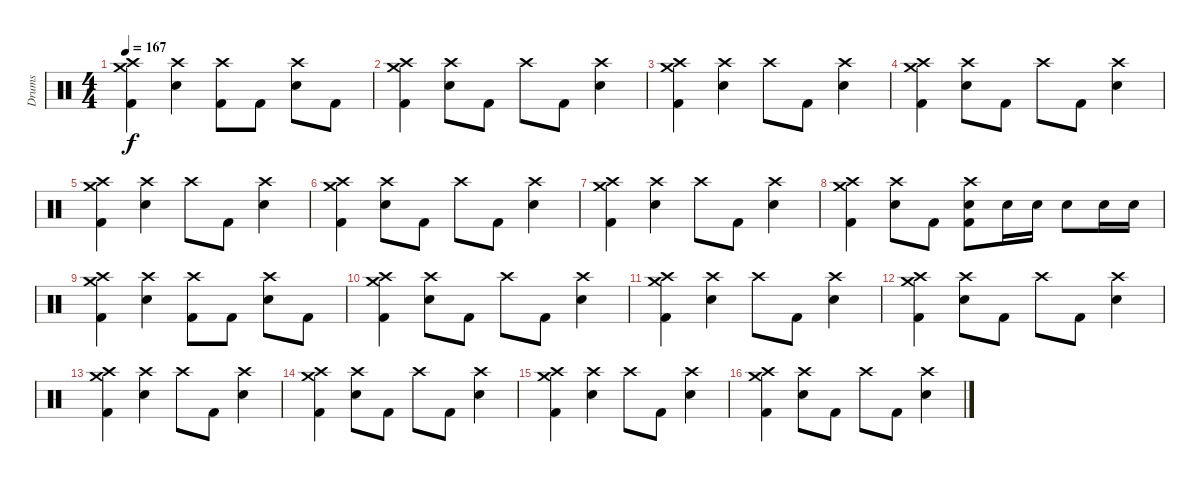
\track ("Drums" "Drums") {instrument percussion}
\staff {score}
\articulation defaults
\ts (4 4)
\tempo 167
\clef neutral
\ks c
("Crash medium (hit)" "Crash high (hit)" "Kick (hit) 2").4{dy f} ("Crash high (hit)" "Snare (hit) 2").4 ("Crash high (hit)" "Kick (hit) 2").8 "Kick (hit) 2".8 ("Crash high (hit)" "Snare (hit) 2").8 "Kick (hit) 2".8 |
("Crash medium (hit)" "Crash high (hit)" "Kick (hit) 2").4 ("Crash high (hit)" "Snare (hit) 2").8 "Kick (hit) 2".8 "Crash high (hit)".8 "Kick (hit) 2".8 ("Crash high (hit)" "Snare (hit) 2").4 |
("Crash medium (hit)" "Crash high (hit)" "Kick (hit) 2").4 ("Crash high (hit)" "Snare (hit) 2").4 "Crash high (hit)".8 "Kick (hit) 2".8 ("Crash high (hit)" "Snare (hit) 2").4 |
("Crash medium (hit)" "Crash high (hit)" "Kick (hit) 2").4 ("Crash high (hit)" "Snare (hit) 2").8 "Kick (hit) 2".8 "Crash high (hit)".8 "Kick (hit) 2".8 ("Crash high (hit)" "Snare (hit) 2").4 |
("Crash medium (hit)" "Crash high (hit)" "Kick (hit) 2").4 ("Crash high (hit)" "Snare (hit) 2").4 "Crash high (hit)".8 "Kick (hit) 2".8 ("Crash high (hit)" "Snare (hit) 2").4 |
("Crash medium (hit)" "Crash high (hit)" "Kick (hit) 2").4 ("Crash high (hit)" "Snare (hit) 2").8 "Kick (hit) 2".8 "Crash high (hit)".8 "Kick (hit) 2".8 ("Crash high (hit)" "Snare (hit) 2").4 |
("Crash medium (hit)" "Crash high (hit)" "Kick (hit) 2").4 ("Crash high (hit)" "Snare (hit) 2").4 "Crash high (hit)".8 "Kick (hit) 2".8 ("Crash high (hit)" "Snare (hit) 2").4 |
("Crash medium (hit)" "Crash high (hit)" "Kick (hit) 2").4 ("Crash high (hit)" "Snare (hit) 2").8 "Kick (hit) 2".8 ("Crash high (hit)" "Kick (hit) 2" "Snare (hit) 2").8 "Snare (hit) 2".16 "Snare (hit) 2".16 "Snare (hit) 2".8 "Snare (hit) 2".16 "Snare (hit) 2".16 |
("Crash medium (hit)" "Crash high (hit)" "Kick (hit) 2").4 ("Crash high (hit)" "Snare (hit) 2").4 ("Crash high (hit)" "Kick (hit) 2").8 "Kick (hit) 2".8 ("Crash high (hit)" "Snare (hit) 2").8 "Kick (hit) 2".8 |
("Crash medium (hit)" "Crash high (hit)" "Kick (hit) 2").4 ("Crash high (hit)" "Snare (hit) 2").8 "Kick (hit) 2".8 "Crash high (hit)".8 "Kick (hit) 2".8 ("Crash high (hit)" "Snare (hit) 2").4 |
("Crash medium (hit)" "Crash high (hit)" "Kick (hit) 2").4 ("Crash high (hit)" "Snare (hit) 2").4 "Crash high (hit)".8 "Kick (hit) 2".8 ("Crash high (hit)" "Snare (hit) 2").4 |
("Crash medium (hit)" "Crash high (hit)" "Kick (hit) 2").4 ("Crash high (hit)" "Snare (hit) 2").8 "Kick (hit) 2".8 "Crash high (hit)".8 "Kick (hit) 2".8 ("Crash high (hit)" "Snare (hit) 2").4 |
("Crash medium (hit)" "Crash high (hit)" "Kick (hit) 2").4 ("Crash high (hit)" "Snare (hit) 2").4 "Crash high (hit)".8 "Kick (hit) 2".8 ("Crash high (hit)" "Snare (hit) 2").4 |
("Crash medium (hit)" "Crash high (hit)" "Kick (hit) 2").4 ("Crash high (hit)" "Snare (hit) 2").8 "Kick (hit) 2".8 "Crash high (hit)".8 "Kick (hit) 2".8 ("Crash high (hit)" "Snare (hit) 2").4 |
("Crash medium (hit)" "Crash high (hit)" "Kick (hit) 2").4 ("Crash high (hit)" "Snare (hit) 2").4 "Crash high (hit)".8 "Kick (hit) 2".8 ("Crash high (hit)" "Snare (hit) 2").4 |
("Crash medium (hit)" "Crash high (hit)" "Kick (hit) 2").4 ("Crash high (hit)" "Snare (hit) 2").8 "Kick (hit) 2".8 "Crash high (hit)".8 "Kick (hit) 2".8 ("Crash high (hit)" "Snare (hit) 2").4
